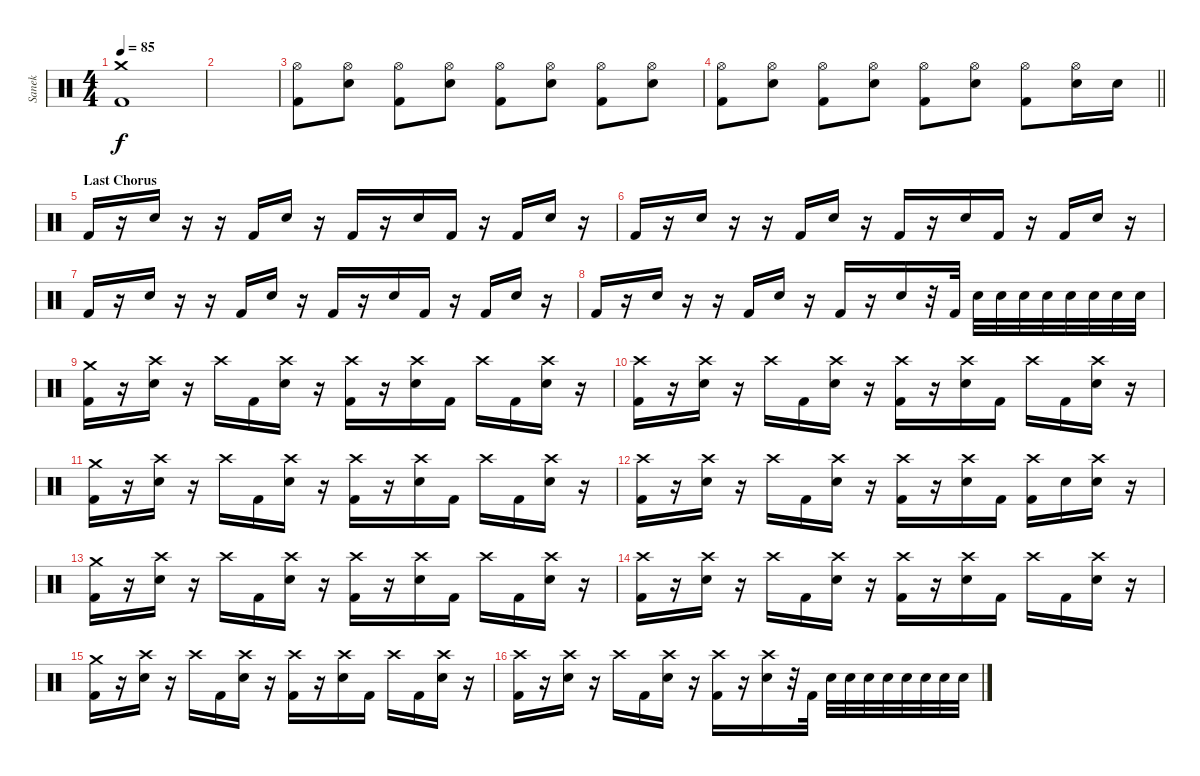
\track ("Sanek" "Sanek") {instrument percussion}
\staff {score}
\articulation defaults
\ts (4 4)
\tempo 85
\clef neutral
\ks c
("Kick (hit) 2" "Crash medium (hit)").1{dy f} |
|
("Kick (hit) 2" "Hi-Hat (open)").8 ("Electric Snare (hit)" "Hi-Hat (open)").8 ("Kick (hit) 2" "Hi-Hat (open)").8 ("Electric Snare (hit)" "Hi-Hat (open)").8 ("Kick (hit) 2" "Hi-Hat (open)").8 ("Electric Snare (hit)" "Hi-Hat (open)").8 ("Kick (hit) 2" "Hi-Hat (open)").8 ("Electric Snare (hit)" "Hi-Hat (open)").8 |
\barLineRight lightlight
("Kick (hit) 2" "Hi-Hat (open)").8 ("Electric Snare (hit)" "Hi-Hat (open)").8 ("Kick (hit) 2" "Hi-Hat (open)").8 ("Electric Snare (hit)" "Hi-Hat (open)").8 ("Kick (hit) 2" "Hi-Hat (open)").8 ("Electric Snare (hit)" "Hi-Hat (open)").8 ("Kick (hit) 2" "Hi-Hat (open)").8 ("Electric Snare (hit)" "Hi-Hat (open)").16 "Electric Snare (hit)".16 |
\section ("" "Last Chorus")
"Kick (hit) 2".16 r.16 "Electric Snare (hit)".16 r.16 r.16 "Kick (hit) 2".16 "Electric Snare (hit)".16 r.16 "Kick (hit) 2".16 r.16 "Electric Snare (hit)".16 "Kick (hit) 2".16 r.16 "Kick (hit) 2".16 "Electric Snare (hit)".16 r.16 |
"Kick (hit) 2".16 r.16 "Electric Snare (hit)".16 r.16 r.16 "Kick (hit) 2".16 "Electric Snare (hit)".16 r.16 "Kick (hit) 2".16 r.16 "Electric Snare (hit)".16 "Kick (hit) 2".16 r.16 "Kick (hit) 2".16 "Electric Snare (hit)".16 r.16 |
"Kick (hit) 2".16 r.16 "Electric Snare (hit)".16 r.16 r.16 "Kick (hit) 2".16 "Electric Snare (hit)".16 r.16 "Kick (hit) 2".16 r.16 "Electric Snare (hit)".16 "Kick (hit) 2".16 r.16 "Kick (hit) 2".16 "Electric Snare (hit)".16 r.16 |
"Kick (hit) 2".16 r.16 "Electric Snare (hit)".16 r.16 r.16 "Kick (hit) 2".16 "Electric Snare (hit)".16 r.16 "Kick (hit) 2".16 r.16 "Electric Snare (hit)".16 r.32 "Kick (hit) 2".32 "Electric Snare (hit)".32 "Electric Snare (hit)".32 "Electric Snare (hit)".32 "Electric Snare (hit)".32 "Electric Snare (hit)".32 "Electric Snare (hit)".32 "Electric Snare (hit)".32 "Electric Snare (hit)".32 |
("Kick (hit) 2" "Crash medium (hit)").16 r.16 ("Electric Snare (hit)" "Crash high (hit)").16 r.16 "Crash high (hit)".16 "Kick (hit) 2".16 ("Electric Snare (hit)" "Crash high (hit)").16 r.16 ("Kick (hit) 2" "Crash high (hit)").16 r.16 ("Electric Snare (hit)" "Crash high (hit)").16 "Kick (hit) 2".16 "Crash high (hit)".16 "Kick (hit) 2".16 ("Electric Snare (hit)" "Crash high (hit)").16 r.16 |
("Kick (hit) 2" "Crash high (hit)").16 r.16 ("Electric Snare (hit)" "Crash high (hit)").16 r.16 "Crash high (hit)".16 "Kick (hit) 2".16 ("Electric Snare (hit)" "Crash high (hit)").16 r.16 ("Kick (hit) 2" "Crash high (hit)").16 r.16 ("Electric Snare (hit)" "Crash high (hit)").16 "Kick (hit) 2".16 "Crash high (hit)".16 "Kick (hit) 2".16 ("Electric Snare (hit)" "Crash high (hit)").16 r.16 |
("Kick (hit) 2" "Crash medium (hit)").16 r.16 ("Electric Snare (hit)" "Crash high (hit)").16 r.16 "Crash high (hit)".16 "Kick (hit) 2".16 ("Electric Snare (hit)" "Crash high (hit)").16 r.16 ("Kick (hit) 2" "Crash high (hit)").16 r.16 ("Electric Snare (hit)" "Crash high (hit)").16 "Kick (hit) 2".16 "Crash high (hit)".16 "Kick (hit) 2".16 ("Electric Snare (hit)" "Crash high (hit)").16 r.16 |
("Kick (hit) 2" "Crash high (hit)").16 r.16 ("Electric Snare (hit)" "Crash high (hit)").16 r.16 "Crash high (hit)".16 "Kick (hit) 2".16 ("Electric Snare (hit)" "Crash high (hit)").16 r.16 ("Kick (hit) 2" "Crash high (hit)").16 r.16 ("Electric Snare (hit)" "Crash high (hit)").16 "Kick (hit) 2".16 ("Kick (hit) 2" "Crash high (hit)").16 "Electric Snare (hit)".16 ("Electric Snare (hit)" "Crash high (hit)").16 r.16 |
("Kick (hit) 2" "Crash medium (hit)").16 r.16 ("Electric Snare (hit)" "Crash high (hit)").16 r.16 "Crash high (hit)".16 "Kick (hit) 2".16 ("Electric Snare (hit)" "Crash high (hit)").16 r.16 ("Kick (hit) 2" "Crash high (hit)").16 r.16 ("Electric Snare (hit)" "Crash high (hit)").16 "Kick (hit) 2".16 "Crash high (hit)".16 "Kick (hit) 2".16 ("Electric Snare (hit)" "Crash high (hit)").16 r.16 |
("Kick (hit) 2" "Crash high (hit)").16 r.16 ("Electric Snare (hit)" "Crash high (hit)").16 r.16 "Crash high (hit)".16 "Kick (hit) 2".16 ("Electric Snare (hit)" "Crash high (hit)").16 r.16 ("Kick (hit) 2" "Crash high (hit)").16 r.16 ("Electric Snare (hit)" "Crash high (hit)").16 "Kick (hit) 2".16 "Crash high (hit)".16 "Kick (hit) 2".16 ("Electric Snare (hit)" "Crash high (hit)").16 r.16 |
("Kick (hit) 2" "Crash medium (hit)").16 r.16 ("Electric Snare (hit)" "Crash high (hit)").16 r.16 "Crash high (hit)".16 "Kick (hit) 2".16 ("Electric Snare (hit)" "Crash high (hit)").16 r.16 ("Kick (hit) 2" "Crash high (hit)").16 r.16 ("Electric Snare (hit)" "Crash high (hit)").16 "Kick (hit) 2".16 "Crash high (hit)".16 "Kick (hit) 2".16 ("Electric Snare (hit)" "Crash high (hit)").16 r.16 |
("Kick (hit) 2" "Crash high (hit)").16 r.16 ("Electric Snare (hit)" "Crash high (hit)").16 r.16 "Crash high (hit)".16 "Kick (hit) 2".16 ("Electric Snare (hit)" "Crash high (hit)").16 r.16 ("Kick (hit) 2" "Crash high (hit)").16 r.16 ("Electric Snare (hit)" "Crash high (hit)").16 r.32 "Kick (hit) 2".32 "Electric Snare (hit)".32 "Electric Snare (hit)".32 "Electric Snare (hit)".32 "Electric Snare (hit)".32 "Electric Snare (hit)".32 "Electric Snare (hit)".32 "Electric Snare (hit)".32 "Electric Snare (hit)".32
